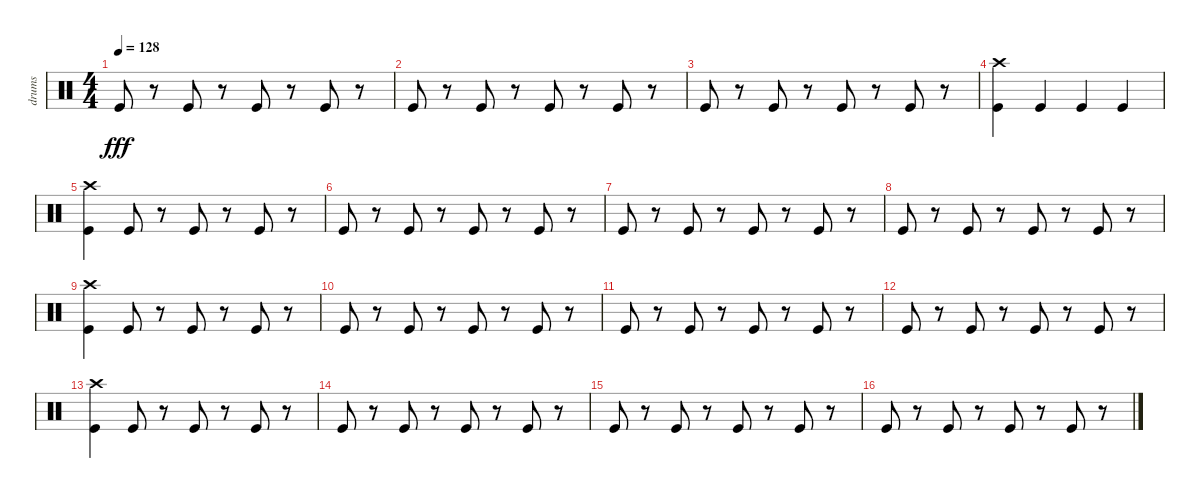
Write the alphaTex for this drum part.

\track ("drums" "drums") {instrument percussion}
\staff {score}
\articulation defaults
\ts (4 4)
\tempo 128
\clef neutral
\ks c "Kick (hit)".8{dy fff}
r.8 "Kick (hit)".8 r.8 "Kick (hit)".8 r.8 "Kick (hit)".8 r.8 |
"Kick (hit)".8 r.8 "Kick (hit)".8 r.8 "Kick (hit)".8 r.8 "Kick (hit)".8 r.8 |
"Kick (hit)".8 r.8 "Kick (hit)".8 r.8 "Kick (hit)".8 r.8 "Kick (hit)".8 r.8 |
("Kick (hit)" "Crash high (hit)").4 "Kick (hit)".4 "Kick (hit)".4 "Kick (hit)".4 |
("Kick (hit)" "Crash high (hit)").4 "Kick (hit)".8 r.8 "Kick (hit)".8 r.8 "Kick (hit)".8 r.8 |
"Kick (hit)".8 r.8 "Kick (hit)".8 r.8 "Kick (hit)".8 r.8 "Kick (hit)".8 r.8 |
"Kick (hit)".8 r.8 "Kick (hit)".8 r.8 "Kick (hit)".8 r.8 "Kick (hit)".8 r.8 |
"Kick (hit)".8 r.8 "Kick (hit)".8 r.8 "Kick (hit)".8 r.8 "Kick (hit)".8 r.8 |
("Kick (hit)" "Crash high (hit)").4 "Kick (hit)".8 r.8 "Kick (hit)".8 r.8 "Kick (hit)".8 r.8 |
"Kick (hit)".8 r.8 "Kick (hit)".8 r.8 "Kick (hit)".8 r.8 "Kick (hit)".8 r.8 |
"Kick (hit)".8 r.8 "Kick (hit)".8 r.8 "Kick (hit)".8 r.8 "Kick (hit)".8 r.8 |
"Kick (hit)".8 r.8 "Kick (hit)".8 r.8 "Kick (hit)".8 r.8 "Kick (hit)".8 r.8 |
("Kick (hit)" "Crash high (hit)").4 "Kick (hit)".8 r.8 "Kick (hit)".8 r.8 "Kick (hit)".8 r.8 |
"Kick (hit)".8 r.8 "Kick (hit)".8 r.8 "Kick (hit)".8 r.8 "Kick (hit)".8 r.8 |
"Kick (hit)".8 r.8 "Kick (hit)".8 r.8 "Kick (hit)".8 r.8 "Kick (hit)".8 r.8 |
"Kick (hit)".8 r.8 "Kick (hit)".8 r.8 "Kick (hit)".8 r.8 "Kick (hit)".8 r.8
